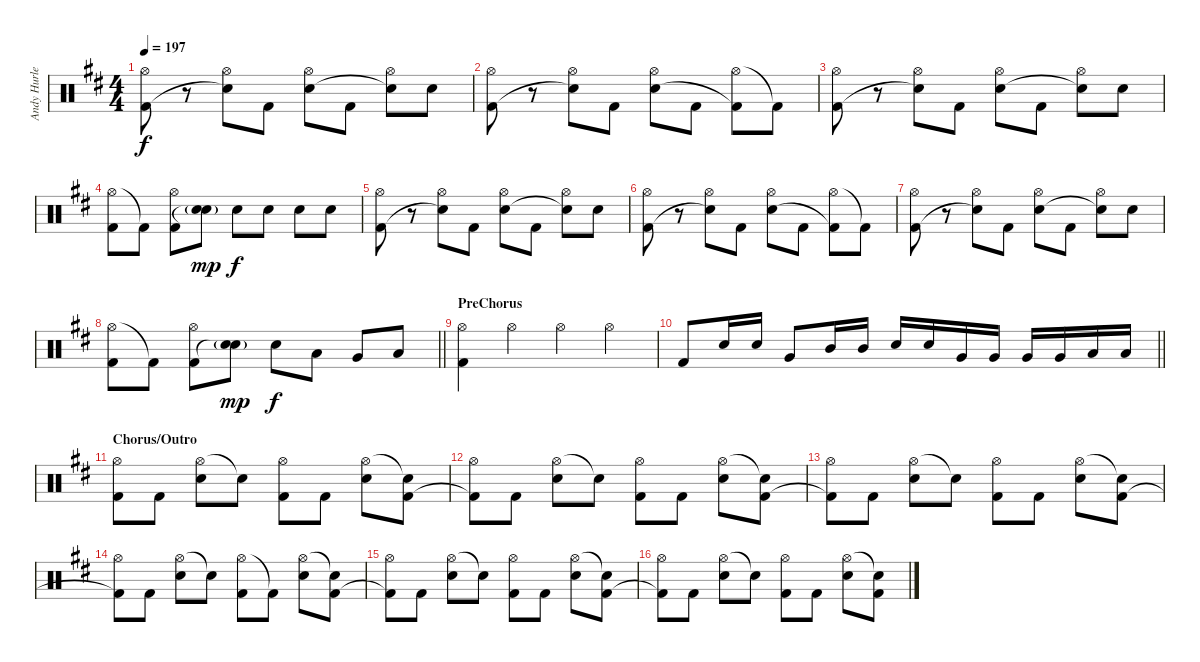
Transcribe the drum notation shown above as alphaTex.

\track ("Andy Hurley (Drums)" "Andy Hurle") {instrument percussion}
\staff {score}
\articulation defaults
\ts (4 4)
\tempo 197
\clef neutral
\ks d
("Hi-Hat (open)" "Kick (hit) 2").8{dy f} r.8 ("Hi-Hat (open)" "Snare (hit)"{t}).8 "Kick (hit) 2".8 ("Hi-Hat (open)" "Electric Snare (hit)").8 "Kick (hit) 2".8 ("Hi-Hat (open)" "Snare (hit)"{t}).8 "Electric Snare (hit)".8 |
("Hi-Hat (open)" "Kick (hit) 2").8 r.8 ("Hi-Hat (open)" "Snare (hit)"{t}).8 "Kick (hit) 2".8 ("Hi-Hat (open)" "Electric Snare (hit)").8 "Kick (hit) 2".8 ("Hi-Hat (open)" "Kick (hit) 2"{t}).8 "Kick (hit) 2"{t}.8 |
("Hi-Hat (open)" "Kick (hit) 2").8 r.8 ("Hi-Hat (open)" "Snare (hit)"{t}).8 "Kick (hit) 2".8 ("Hi-Hat (open)" "Electric Snare (hit)").8 "Kick (hit) 2".8 ("Hi-Hat (open)" "Snare (hit)"{t}).8 "Electric Snare (hit)".8 |
("Hi-Hat (open)" "Kick (hit) 2").8 "Kick (hit) 2"{t}.8 ("Hi-Hat (open)" "Kick (hit) 2").8 ("Electric Snare (hit)"{g} "Snare (hit)"{t}).8{dy mp} "Electric Snare (hit)".8{dy f} "Electric Snare (hit)".8 "Electric Snare (hit)".8 "Electric Snare (hit)".8 |
("Hi-Hat (open)" "Kick (hit) 2").8 r.8 ("Hi-Hat (open)" "Snare (hit)"{t}).8 "Kick (hit) 2".8 ("Hi-Hat (open)" "Electric Snare (hit)").8 "Kick (hit) 2".8 ("Hi-Hat (open)" "Snare (hit)"{t}).8 "Electric Snare (hit)".8 |
("Hi-Hat (open)" "Kick (hit) 2").8 r.8 ("Hi-Hat (open)" "Snare (hit)"{t}).8 "Kick (hit) 2".8 ("Hi-Hat (open)" "Electric Snare (hit)").8 "Kick (hit) 2".8 ("Hi-Hat (open)" "Kick (hit) 2"{t}).8 "Kick (hit) 2"{t}.8 |
("Hi-Hat (open)" "Kick (hit) 2").8 r.8 ("Hi-Hat (open)" "Snare (hit)"{t}).8 "Kick (hit) 2".8 ("Hi-Hat (open)" "Electric Snare (hit)").8 "Kick (hit) 2".8 ("Hi-Hat (open)" "Snare (hit)"{t}).8 "Electric Snare (hit)".8 |
\barLineRight lightlight
("Hi-Hat (open)" "Kick (hit) 2").8 "Kick (hit) 2"{t}.8 ("Hi-Hat (open)" "Kick (hit) 2").8 ("Electric Snare (hit)"{g} "Snare (hit)"{t}).8{dy mp} "Electric Snare (hit)".8{dy f} "Low Tom (hit)".8 "Very Low Tom (hit)".8 "Low Floor Tom (hit)".8 |
\section ("" "PreChorus")
("Hi-Hat (open)" "Kick (hit) 2").4 "Hi-Hat (open)".4 "Hi-Hat (open)".4 "Hi-Hat (open)".4 |
\barLineRight lightlight "Kick (hit) 2".8 "Electric Snare (hit)".16 "Electric Snare (hit)".16 "Very Low Tom (hit)".8 "Mid Tom (hit)".16 "Mid Tom (hit)".16 "Electric Snare (hit)".16 "Electric Snare (hit)".16 "Very Low Tom (hit)".16 "Very Low Tom (hit)".16 "Very Low Tom (hit)".16 "Very Low Tom (hit)".16 "Low Floor Tom (hit)".16 "Low Floor Tom (hit)".16
|
\section ("" "Chorus/Outro")
("Hi-Hat (open)" "Kick (hit) 2").8 "Kick (hit) 2".8 ("Hi-Hat (open)" "Electric Snare (hit)").8 "Snare (hit)"{t}.8 ("Hi-Hat (open)" "Kick (hit) 2").8 "Kick (hit) 2".8 ("Hi-Hat (open)" "Electric Snare (hit)").8 ("Snare (hit)"{t} "Kick (hit) 2").8 |
("Hi-Hat (open)" "Kick (hit) 2"{t}).8 "Kick (hit) 2".8 ("Hi-Hat (open)" "Electric Snare (hit)").8 "Snare (hit)"{t}.8 ("Hi-Hat (open)" "Kick (hit) 2").8 "Kick (hit) 2".8 ("Hi-Hat (open)" "Electric Snare (hit)").8 ("Snare (hit)"{t} "Kick (hit) 2").8 |
("Hi-Hat (open)" "Kick (hit) 2"{t}).8 "Kick (hit) 2".8 ("Hi-Hat (open)" "Electric Snare (hit)").8 "Snare (hit)"{t}.8 ("Hi-Hat (open)" "Kick (hit) 2").8 "Kick (hit) 2".8 ("Hi-Hat (open)" "Electric Snare (hit)").8 ("Snare (hit)"{t} "Kick (hit) 2").8 |
("Hi-Hat (open)" "Kick (hit) 2"{t}).8 "Kick (hit) 2".8 ("Hi-Hat (open)" "Electric Snare (hit)").8 "Snare (hit)"{t}.8 ("Hi-Hat (open)" "Kick (hit) 2").8 "Kick (hit) 2"{t}.8 ("Hi-Hat (open)" "Electric Snare (hit)").8 ("Snare (hit)"{t} "Kick (hit) 2").8 |
("Hi-Hat (open)" "Kick (hit) 2"{t}).8 "Kick (hit) 2".8 ("Hi-Hat (open)" "Electric Snare (hit)").8 "Snare (hit)"{t}.8 ("Hi-Hat (open)" "Kick (hit) 2").8 "Kick (hit) 2".8 ("Hi-Hat (open)" "Electric Snare (hit)").8 ("Snare (hit)"{t} "Kick (hit) 2").8 |
("Hi-Hat (open)" "Kick (hit) 2"{t}).8 "Kick (hit) 2".8 ("Hi-Hat (open)" "Electric Snare (hit)").8 "Snare (hit)"{t}.8 ("Hi-Hat (open)" "Kick (hit) 2").8 "Kick (hit) 2".8 ("Hi-Hat (open)" "Electric Snare (hit)").8 ("Snare (hit)"{t} "Kick (hit) 2").8
